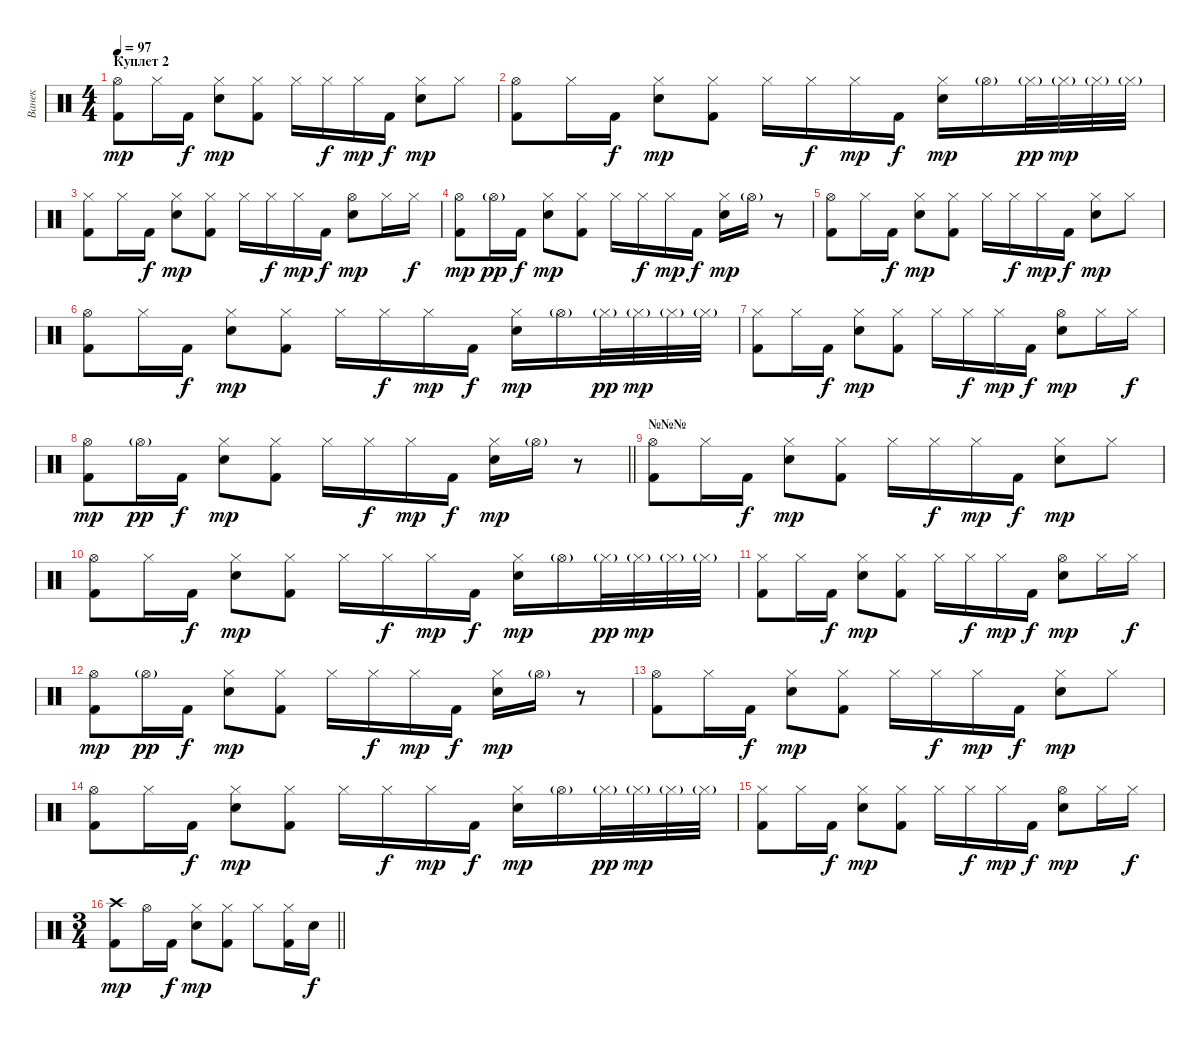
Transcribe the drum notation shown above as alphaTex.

\track ("Ванек" "Ванек") {instrument percussion}
\staff {score}
\articulation defaults
\ts (4 4)
\section ("" "Куплет 2")
\tempo 97
\clef neutral
\ks c
("Hi-Hat (open)" "Kick (hit) 2").8{dy mp} "Hi-Hat (closed)".16 "Kick (hit) 2".16{dy f} ("Hi-Hat (closed)" "Snare (hit) 2").8{dy mp} ("Hi-Hat (closed)" "Kick (hit) 2").8 "Hi-Hat (closed)".16 "Hi-Hat (closed)".16{dy f} "Hi-Hat (closed)".16{dy mp} "Kick (hit) 2".16{dy f} ("Hi-Hat (closed)" "Snare (hit) 2").8{dy mp} "Hi-Hat (closed)".8 |
("Hi-Hat (open)" "Kick (hit) 2").8 "Hi-Hat (closed)".16 "Kick (hit) 2".16{dy f} ("Hi-Hat (closed)" "Snare (hit) 2").8{dy mp} ("Hi-Hat (closed)" "Kick (hit) 2").8 "Hi-Hat (closed)".16 "Hi-Hat (closed)".16{dy f} "Hi-Hat (closed)".16{dy mp} "Kick (hit) 2".16{dy f} ("Hi-Hat (closed)" "Snare (hit) 2").16{dy mp} "Hi-Hat (open)"{g}.16 "Hi-Hat (closed)"{g}.32{dy pp} "Hi-Hat (closed)"{g}.32{dy mp} "Hi-Hat (closed)"{g}.32 "Hi-Hat (closed)"{g}.32 |
("Hi-Hat (closed)" "Kick (hit) 2").8 "Hi-Hat (closed)".16 "Kick (hit) 2".16{dy f} ("Hi-Hat (closed)" "Snare (hit) 2").8{dy mp} ("Hi-Hat (closed)" "Kick (hit) 2").8 "Hi-Hat (closed)".16 "Hi-Hat (closed)".16{dy f} "Hi-Hat (closed)".16{dy mp} "Kick (hit) 2".16{dy f} ("Hi-Hat (open)" "Snare (hit) 2").8{dy mp} "Hi-Hat (closed)".16 "Hi-Hat (closed)".16{dy f} |
("Hi-Hat (open)" "Kick (hit) 2").8{dy mp} "Hi-Hat (open)"{g}.16{dy pp} "Kick (hit) 2".16{dy f} ("Hi-Hat (closed)" "Snare (hit) 2").8{dy mp} ("Hi-Hat (closed)" "Kick (hit) 2").8 "Hi-Hat (closed)".16 "Hi-Hat (closed)".16{dy f} "Hi-Hat (closed)".16{dy mp} "Kick (hit) 2".16{dy f} ("Hi-Hat (closed)" "Snare (hit) 2").16{dy mp} "Hi-Hat (open)"{g}.16 r.8 |
("Hi-Hat (open)" "Kick (hit) 2").8 "Hi-Hat (closed)".16 "Kick (hit) 2".16{dy f} ("Hi-Hat (closed)" "Snare (hit) 2").8{dy mp} ("Hi-Hat (closed)" "Kick (hit) 2").8 "Hi-Hat (closed)".16 "Hi-Hat (closed)".16{dy f} "Hi-Hat (closed)".16{dy mp} "Kick (hit) 2".16{dy f} ("Hi-Hat (closed)" "Snare (hit) 2").8{dy mp} "Hi-Hat (closed)".8 |
("Hi-Hat (open)" "Kick (hit) 2").8 "Hi-Hat (closed)".16 "Kick (hit) 2".16{dy f} ("Hi-Hat (closed)" "Snare (hit) 2").8{dy mp} ("Hi-Hat (closed)" "Kick (hit) 2").8 "Hi-Hat (closed)".16 "Hi-Hat (closed)".16{dy f} "Hi-Hat (closed)".16{dy mp} "Kick (hit) 2".16{dy f} ("Hi-Hat (closed)" "Snare (hit) 2").16{dy mp} "Hi-Hat (open)"{g}.16 "Hi-Hat (closed)"{g}.32{dy pp} "Hi-Hat (closed)"{g}.32{dy mp} "Hi-Hat (closed)"{g}.32 "Hi-Hat (closed)"{g}.32 |
("Hi-Hat (closed)" "Kick (hit) 2").8 "Hi-Hat (closed)".16 "Kick (hit) 2".16{dy f} ("Hi-Hat (closed)" "Snare (hit) 2").8{dy mp} ("Hi-Hat (closed)" "Kick (hit) 2").8 "Hi-Hat (closed)".16 "Hi-Hat (closed)".16{dy f} "Hi-Hat (closed)".16{dy mp} "Kick (hit) 2".16{dy f} ("Hi-Hat (open)" "Snare (hit) 2").8{dy mp} "Hi-Hat (closed)".16 "Hi-Hat (closed)".16{dy f} |
\barLineRight lightlight
("Hi-Hat (open)" "Kick (hit) 2").8{dy mp} "Hi-Hat (open)"{g}.16{dy pp} "Kick (hit) 2".16{dy f} ("Hi-Hat (closed)" "Snare (hit) 2").8{dy mp} ("Hi-Hat (closed)" "Kick (hit) 2").8 "Hi-Hat (closed)".16 "Hi-Hat (closed)".16{dy f} "Hi-Hat (closed)".16{dy mp} "Kick (hit) 2".16{dy f} ("Hi-Hat (closed)" "Snare (hit) 2").16{dy mp} "Hi-Hat (open)"{g}.16 r.8 |
\section ("" "№№№")
("Hi-Hat (open)" "Kick (hit) 2").8 "Hi-Hat (closed)".16 "Kick (hit) 2".16{dy f} ("Hi-Hat (closed)" "Snare (hit) 2").8{dy mp} ("Hi-Hat (closed)" "Kick (hit) 2").8 "Hi-Hat (closed)".16 "Hi-Hat (closed)".16{dy f} "Hi-Hat (closed)".16{dy mp} "Kick (hit) 2".16{dy f} ("Hi-Hat (closed)" "Snare (hit) 2").8{dy mp} "Hi-Hat (closed)".8 |
("Hi-Hat (open)" "Kick (hit) 2").8 "Hi-Hat (closed)".16 "Kick (hit) 2".16{dy f} ("Hi-Hat (closed)" "Snare (hit) 2").8{dy mp} ("Hi-Hat (closed)" "Kick (hit) 2").8 "Hi-Hat (closed)".16 "Hi-Hat (closed)".16{dy f} "Hi-Hat (closed)".16{dy mp} "Kick (hit) 2".16{dy f} ("Hi-Hat (closed)" "Snare (hit) 2").16{dy mp} "Hi-Hat (open)"{g}.16 "Hi-Hat (closed)"{g}.32{dy pp} "Hi-Hat (closed)"{g}.32{dy mp} "Hi-Hat (closed)"{g}.32 "Hi-Hat (closed)"{g}.32 |
("Hi-Hat (closed)" "Kick (hit) 2").8 "Hi-Hat (closed)".16 "Kick (hit) 2".16{dy f} ("Hi-Hat (closed)" "Snare (hit) 2").8{dy mp} ("Hi-Hat (closed)" "Kick (hit) 2").8 "Hi-Hat (closed)".16 "Hi-Hat (closed)".16{dy f} "Hi-Hat (closed)".16{dy mp} "Kick (hit) 2".16{dy f} ("Hi-Hat (open)" "Snare (hit) 2").8{dy mp} "Hi-Hat (closed)".16 "Hi-Hat (closed)".16{dy f} |
("Hi-Hat (open)" "Kick (hit) 2").8{dy mp} "Hi-Hat (open)"{g}.16{dy pp} "Kick (hit) 2".16{dy f} ("Hi-Hat (closed)" "Snare (hit) 2").8{dy mp} ("Hi-Hat (closed)" "Kick (hit) 2").8 "Hi-Hat (closed)".16 "Hi-Hat (closed)".16{dy f} "Hi-Hat (closed)".16{dy mp} "Kick (hit) 2".16{dy f} ("Hi-Hat (closed)" "Snare (hit) 2").16{dy mp} "Hi-Hat (open)"{g}.16 r.8 |
("Hi-Hat (open)" "Kick (hit) 2").8 "Hi-Hat (closed)".16 "Kick (hit) 2".16{dy f} ("Hi-Hat (closed)" "Snare (hit) 2").8{dy mp} ("Hi-Hat (closed)" "Kick (hit) 2").8 "Hi-Hat (closed)".16 "Hi-Hat (closed)".16{dy f} "Hi-Hat (closed)".16{dy mp} "Kick (hit) 2".16{dy f} ("Hi-Hat (closed)" "Snare (hit) 2").8{dy mp} "Hi-Hat (closed)".8 |
("Hi-Hat (open)" "Kick (hit) 2").8 "Hi-Hat (closed)".16 "Kick (hit) 2".16{dy f} ("Hi-Hat (closed)" "Snare (hit) 2").8{dy mp} ("Hi-Hat (closed)" "Kick (hit) 2").8 "Hi-Hat (closed)".16 "Hi-Hat (closed)".16{dy f} "Hi-Hat (closed)".16{dy mp} "Kick (hit) 2".16{dy f} ("Hi-Hat (closed)" "Snare (hit) 2").16{dy mp} "Hi-Hat (open)"{g}.16 "Hi-Hat (closed)"{g}.32{dy pp} "Hi-Hat (closed)"{g}.32{dy mp} "Hi-Hat (closed)"{g}.32 "Hi-Hat (closed)"{g}.32 |
("Hi-Hat (closed)" "Kick (hit) 2").8 "Hi-Hat (closed)".16 "Kick (hit) 2".16{dy f} ("Hi-Hat (closed)" "Snare (hit) 2").8{dy mp} ("Hi-Hat (closed)" "Kick (hit) 2").8 "Hi-Hat (closed)".16 "Hi-Hat (closed)".16{dy f} "Hi-Hat (closed)".16{dy mp} "Kick (hit) 2".16{dy f} ("Hi-Hat (open)" "Snare (hit) 2").8{dy mp} "Hi-Hat (closed)".16 "Hi-Hat (closed)".16{dy f} |
\ts (3 4)
\barLineRight lightlight
("Crash high (hit)" "Kick (hit) 2").8{dy mp} "Hi-Hat (open)".16 "Kick (hit) 2".16{dy f} ("Hi-Hat (closed)" "Snare (hit) 2").8{dy mp} ("Hi-Hat (closed)" "Kick (hit) 2").8 "Hi-Hat (closed)".8 ("Hi-Hat (closed)" "Kick (hit) 2").16 "Snare (hit) 2".16{dy f}
